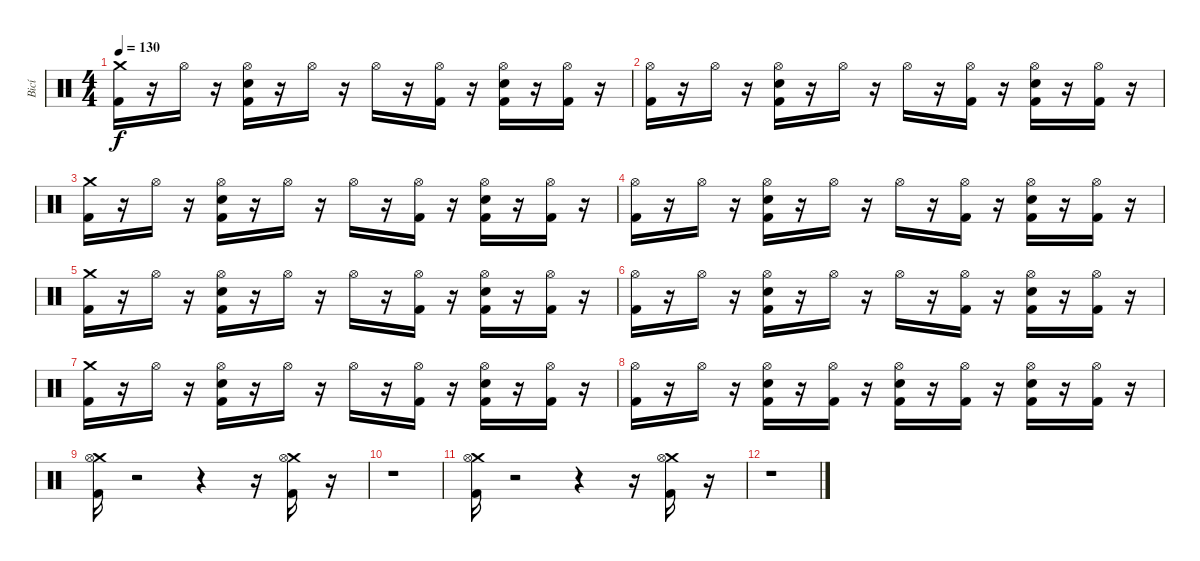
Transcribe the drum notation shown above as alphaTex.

\track ("Bicí" "Bicí") {instrument percussion}
\staff {score}
\articulation defaults
\ts (4 4)
\tempo 130
\clef neutral
\ks c
("Crash medium (hit)" "Kick (hit) 2").16{dy f} r.16 "Hi-Hat (open)".16 r.16 ("Hi-Hat (open)" "Electric Snare (hit)" "Kick (hit) 2").16 r.16 "Hi-Hat (open)".16 r.16 "Hi-Hat (open)".16 r.16 ("Hi-Hat (open)" "Kick (hit) 2").16 r.16 ("Hi-Hat (open)" "Electric Snare (hit)" "Kick (hit) 2").16 r.16 ("Hi-Hat (open)" "Kick (hit) 2").16 r.16 |
("Hi-Hat (open)" "Kick (hit) 2").16 r.16 "Hi-Hat (open)".16 r.16 ("Hi-Hat (open)" "Electric Snare (hit)" "Kick (hit) 2").16 r.16 "Hi-Hat (open)".16 r.16 "Hi-Hat (open)".16 r.16 ("Hi-Hat (open)" "Kick (hit) 2").16 r.16 ("Hi-Hat (open)" "Electric Snare (hit)" "Kick (hit) 2").16 r.16 ("Hi-Hat (open)" "Kick (hit) 2").16 r.16 |
("Crash medium (hit)" "Kick (hit) 2").16 r.16 "Hi-Hat (open)".16 r.16 ("Hi-Hat (open)" "Electric Snare (hit)" "Kick (hit) 2").16 r.16 "Hi-Hat (open)".16 r.16 "Hi-Hat (open)".16 r.16 ("Hi-Hat (open)" "Kick (hit) 2").16 r.16 ("Hi-Hat (open)" "Electric Snare (hit)" "Kick (hit) 2").16 r.16 ("Hi-Hat (open)" "Kick (hit) 2").16 r.16 |
("Hi-Hat (open)" "Kick (hit) 2").16 r.16 "Hi-Hat (open)".16 r.16 ("Hi-Hat (open)" "Electric Snare (hit)" "Kick (hit) 2").16 r.16 "Hi-Hat (open)".16 r.16 "Hi-Hat (open)".16 r.16 ("Hi-Hat (open)" "Kick (hit) 2").16 r.16 ("Hi-Hat (open)" "Electric Snare (hit)" "Kick (hit) 2").16 r.16 ("Hi-Hat (open)" "Kick (hit) 2").16 r.16 |
("Crash medium (hit)" "Kick (hit) 2").16 r.16 "Hi-Hat (open)".16 r.16 ("Hi-Hat (open)" "Electric Snare (hit)" "Kick (hit) 2").16 r.16 "Hi-Hat (open)".16 r.16 "Hi-Hat (open)".16 r.16 ("Hi-Hat (open)" "Kick (hit) 2").16 r.16 ("Hi-Hat (open)" "Electric Snare (hit)" "Kick (hit) 2").16 r.16 ("Hi-Hat (open)" "Kick (hit) 2").16 r.16 |
("Hi-Hat (open)" "Kick (hit) 2").16 r.16 "Hi-Hat (open)".16 r.16 ("Hi-Hat (open)" "Electric Snare (hit)" "Kick (hit) 2").16 r.16 "Hi-Hat (open)".16 r.16 "Hi-Hat (open)".16 r.16 ("Hi-Hat (open)" "Kick (hit) 2").16 r.16 ("Hi-Hat (open)" "Electric Snare (hit)" "Kick (hit) 2").16 r.16 ("Hi-Hat (open)" "Kick (hit) 2").16 r.16 |
("Crash medium (hit)" "Kick (hit) 2").16 r.16 "Hi-Hat (open)".16 r.16 ("Hi-Hat (open)" "Electric Snare (hit)" "Kick (hit) 2").16 r.16 "Hi-Hat (open)".16 r.16 "Hi-Hat (open)".16 r.16 ("Hi-Hat (open)" "Kick (hit) 2").16 r.16 ("Hi-Hat (open)" "Electric Snare (hit)" "Kick (hit) 2").16 r.16 ("Hi-Hat (open)" "Kick (hit) 2").16 r.16 |
("Hi-Hat (open)" "Kick (hit) 2").16 r.16 "Hi-Hat (open)".16 r.16 ("Hi-Hat (open)" "Electric Snare (hit)" "Kick (hit) 2").16 r.16 ("Hi-Hat (open)" "Kick (hit) 2").16 r.16 ("Hi-Hat (open)" "Electric Snare (hit)" "Kick (hit) 2").16 r.16 ("Hi-Hat (open)" "Kick (hit) 2").16 r.16 ("Hi-Hat (open)" "Electric Snare (hit)" "Kick (hit) 2").16 r.16 ("Hi-Hat (open)" "Kick (hit) 2").16 r.16 |
("Crash medium (hit)" "Hi-Hat (open)" "Kick (hit) 2").16 r.2 r.4 r.16 ("Crash medium (hit)" "Hi-Hat (open)" "Kick (hit) 2").16 r.16 |
r.1 |
("Crash medium (hit)" "Hi-Hat (open)" "Kick (hit) 2").16 r.2 r.4 r.16 ("Crash medium (hit)" "Hi-Hat (open)" "Kick (hit) 2").16 r.16 |
r.1
